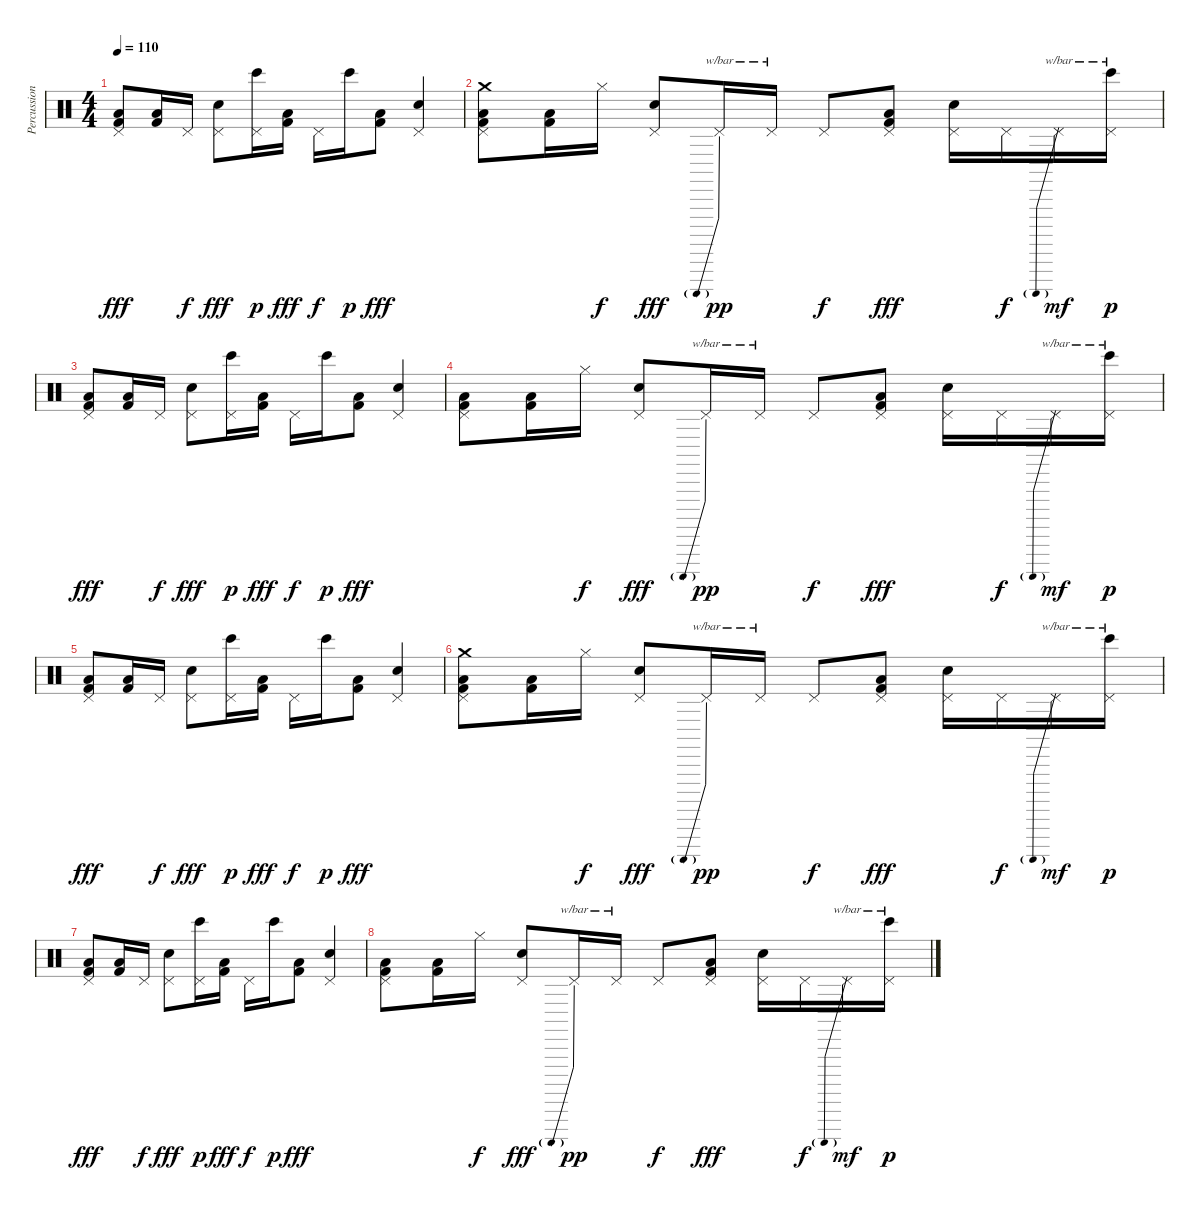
\track ("Percussion" "Percussion") {instrument percussion}
\staff {score}
\articulation defaults
\ts (4 4)
\tempo 110
\clef neutral
\ks c
("Pedal Hi-Hat (hit)" "Kick (hit) 2" "Low Floor Tom (hit)"{be (hold 0 0 60 0)}).8{dy fff} ("Kick (hit) 2" "Low Floor Tom (hit)"{be (hold 0 0 60 0)}).16 "Pedal Hi-Hat (hit)".16{dy f} ("Pedal Hi-Hat (hit)" "Hand Clap (hit)").8{dy fff} ("Pedal Hi-Hat (hit)" "Bongo High (hit)").16{dy p} ("Kick (hit) 2" "Low Floor Tom (hit)"{be (hold 0 0 60 0)}).16{dy fff} "Pedal Hi-Hat (hit)".16{dy f} "Bongo High (hit)".16{dy p} ("Kick (hit) 2" "Low Floor Tom (hit)"{be (hold 0 0 60 0)}).8{dy fff} ("Pedal Hi-Hat (hit)" "Hand Clap (hit)").4 |
("Crash medium (hit)" "Pedal Hi-Hat (hit)" "Kick (hit) 2" "Low Floor Tom (hit)"{be (hold 0 0 60 0)}).8 ("Kick (hit) 2" "Low Floor Tom (hit)"{be (hold 0 0 60 0)}).16 "Hi-Hat (closed)".16{dy f} ("Pedal Hi-Hat (hit)" "Hand Clap (hit)").8{dy fff} "Pedal Hi-Hat (hit)".16{tbe (predive default 0 -24 60 -24) dy pp} "Pedal Hi-Hat (hit)".16{tbe (hold default 0 -14 60 -14)} "Pedal Hi-Hat (hit)".8{dy f} ("Pedal Hi-Hat (hit)" "Kick (hit) 2" "Low Floor Tom (hit)"{be (hold 0 0 60 0)}).8{dy fff} ("Pedal Hi-Hat (hit)" "Hand Clap (hit)").16 "Pedal Hi-Hat (hit)".16{dy f} "Pedal Hi-Hat (hit)".16{tbe (predive default 0 -24 60 -24) dy mf} ("Pedal Hi-Hat (hit)" "Bongo High (hit)").16{tbe (hold default 0 -14 60 -14) dy p} |
("Pedal Hi-Hat (hit)" "Kick (hit) 2" "Low Floor Tom (hit)"{be (hold 0 0 60 0)}).8{dy fff} ("Kick (hit) 2" "Low Floor Tom (hit)"{be (hold 0 0 60 0)}).16 "Pedal Hi-Hat (hit)".16{dy f} ("Pedal Hi-Hat (hit)" "Hand Clap (hit)").8{dy fff} ("Pedal Hi-Hat (hit)" "Bongo High (hit)").16{dy p} ("Kick (hit) 2" "Low Floor Tom (hit)"{be (hold 0 0 60 0)}).16{dy fff} "Pedal Hi-Hat (hit)".16{dy f} "Bongo High (hit)".16{dy p} ("Kick (hit) 2" "Low Floor Tom (hit)"{be (hold 0 0 60 0)}).8{dy fff} ("Pedal Hi-Hat (hit)" "Hand Clap (hit)").4 |
("Pedal Hi-Hat (hit)" "Kick (hit) 2" "Low Floor Tom (hit)"{be (hold 0 0 60 0)}).8 ("Kick (hit) 2" "Low Floor Tom (hit)"{be (hold 0 0 60 0)}).16 "Hi-Hat (closed)".16{dy f} ("Pedal Hi-Hat (hit)" "Hand Clap (hit)").8{dy fff} "Pedal Hi-Hat (hit)".16{tbe (predive default 0 -24 60 -24) dy pp} "Pedal Hi-Hat (hit)".16{tbe (hold default 0 -14 60 -14)} "Pedal Hi-Hat (hit)".8{dy f} ("Pedal Hi-Hat (hit)" "Kick (hit) 2" "Low Floor Tom (hit)"{be (hold 0 0 60 0)}).8{dy fff} ("Pedal Hi-Hat (hit)" "Hand Clap (hit)").16 "Pedal Hi-Hat (hit)".16{dy f} "Pedal Hi-Hat (hit)".16{tbe (predive default 0 -24 60 -24) dy mf} ("Pedal Hi-Hat (hit)" "Bongo High (hit)").16{tbe (hold default 0 -14 60 -14) dy p} |
("Pedal Hi-Hat (hit)" "Kick (hit) 2" "Low Floor Tom (hit)"{be (hold 0 0 60 0)}).8{dy fff} ("Kick (hit) 2" "Low Floor Tom (hit)"{be (hold 0 0 60 0)}).16 "Pedal Hi-Hat (hit)".16{dy f} ("Pedal Hi-Hat (hit)" "Hand Clap (hit)").8{dy fff} ("Pedal Hi-Hat (hit)" "Bongo High (hit)").16{dy p} ("Kick (hit) 2" "Low Floor Tom (hit)"{be (hold 0 0 60 0)}).16{dy fff} "Pedal Hi-Hat (hit)".16{dy f} "Bongo High (hit)".16{dy p} ("Kick (hit) 2" "Low Floor Tom (hit)"{be (hold 0 0 60 0)}).8{dy fff} ("Pedal Hi-Hat (hit)" "Hand Clap (hit)").4 |
("Crash medium (hit)" "Pedal Hi-Hat (hit)" "Kick (hit) 2" "Low Floor Tom (hit)"{be (hold 0 0 60 0)}).8 ("Kick (hit) 2" "Low Floor Tom (hit)"{be (hold 0 0 60 0)}).16 "Hi-Hat (closed)".16{dy f} ("Pedal Hi-Hat (hit)" "Hand Clap (hit)").8{dy fff} "Pedal Hi-Hat (hit)".16{tbe (predive default 0 -24 60 -24) dy pp} "Pedal Hi-Hat (hit)".16{tbe (hold default 0 -14 60 -14)} "Pedal Hi-Hat (hit)".8{dy f} ("Pedal Hi-Hat (hit)" "Kick (hit) 2" "Low Floor Tom (hit)"{be (hold 0 0 60 0)}).8{dy fff} ("Pedal Hi-Hat (hit)" "Hand Clap (hit)").16 "Pedal Hi-Hat (hit)".16{dy f} "Pedal Hi-Hat (hit)".16{tbe (predive default 0 -24 60 -24) dy mf} ("Pedal Hi-Hat (hit)" "Bongo High (hit)").16{tbe (hold default 0 -14 60 -14) dy p} |
("Pedal Hi-Hat (hit)" "Kick (hit) 2" "Low Floor Tom (hit)"{be (hold 0 0 60 0)}).8{dy fff} ("Kick (hit) 2" "Low Floor Tom (hit)"{be (hold 0 0 60 0)}).16 "Pedal Hi-Hat (hit)".16{dy f} ("Pedal Hi-Hat (hit)" "Hand Clap (hit)").8{dy fff} ("Pedal Hi-Hat (hit)" "Bongo High (hit)").16{dy p} ("Kick (hit) 2" "Low Floor Tom (hit)"{be (hold 0 0 60 0)}).16{dy fff} "Pedal Hi-Hat (hit)".16{dy f} "Bongo High (hit)".16{dy p} ("Kick (hit) 2" "Low Floor Tom (hit)"{be (hold 0 0 60 0)}).8{dy fff} ("Pedal Hi-Hat (hit)" "Hand Clap (hit)").4 |
("Pedal Hi-Hat (hit)" "Kick (hit) 2" "Low Floor Tom (hit)"{be (hold 0 0 60 0)}).8 ("Kick (hit) 2" "Low Floor Tom (hit)"{be (hold 0 0 60 0)}).16 "Hi-Hat (closed)".16{dy f} ("Pedal Hi-Hat (hit)" "Hand Clap (hit)").8{dy fff} "Pedal Hi-Hat (hit)".16{tbe (predive default 0 -24 60 -24) dy pp} "Pedal Hi-Hat (hit)".16{tbe (hold default 0 -14 60 -14)} "Pedal Hi-Hat (hit)".8{dy f} ("Pedal Hi-Hat (hit)" "Kick (hit) 2" "Low Floor Tom (hit)"{be (hold 0 0 60 0)}).8{dy fff} ("Pedal Hi-Hat (hit)" "Hand Clap (hit)").16 "Pedal Hi-Hat (hit)".16{dy f} "Pedal Hi-Hat (hit)".16{tbe (predive default 0 -24 60 -24) dy mf} ("Pedal Hi-Hat (hit)" "Bongo High (hit)").16{tbe (hold default 0 -14 60 -14) dy p}
